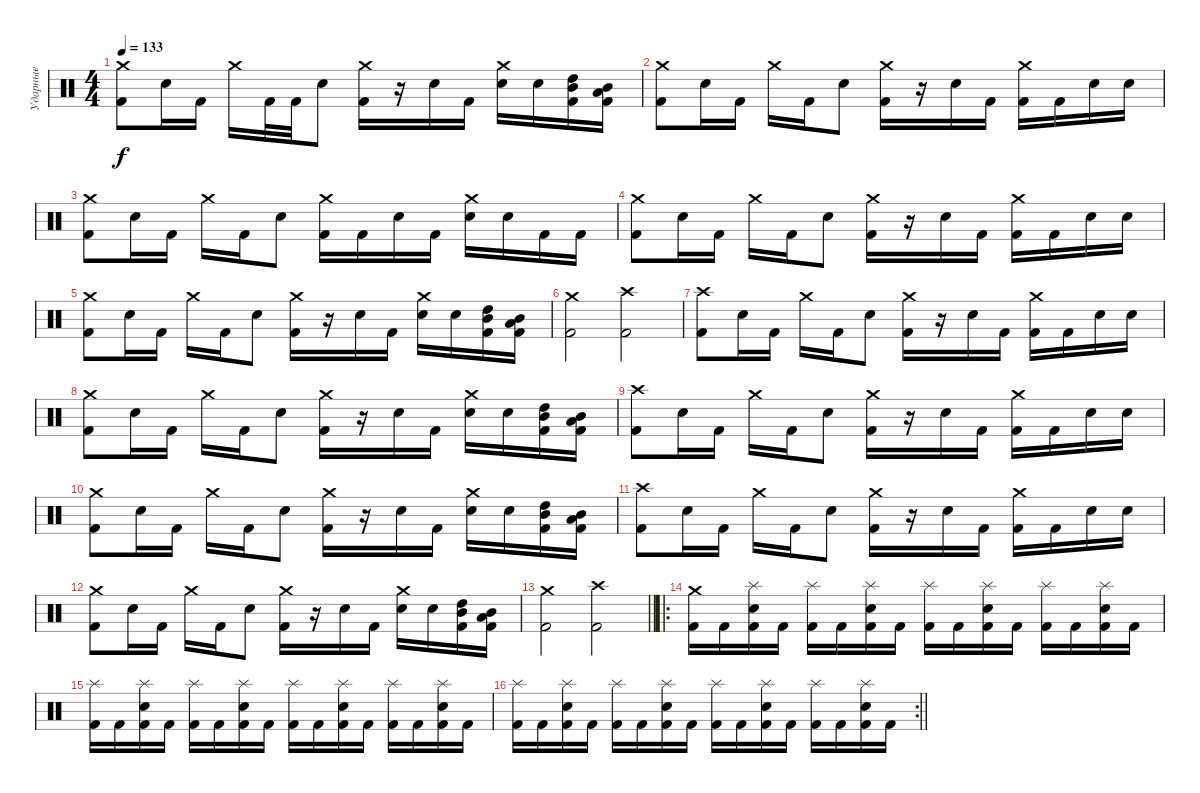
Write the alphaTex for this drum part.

\track ("Ударные" "Ударные") {instrument percussion}
\staff {score}
\articulation defaults
\ts (4 4)
\tempo 133
\clef neutral
\ks c
("Crash medium (hit)" "Kick (hit) 2").8{dy f} "Snare (hit) 2".16 "Kick (hit) 2".16 "Crash medium (hit)".16 "Kick (hit) 2".32 "Kick (hit) 2".32 "Snare (hit) 2".8 ("Crash medium (hit)" "Kick (hit) 2").16 r.16 "Snare (hit) 2".16 "Kick (hit) 2".16 ("Crash medium (hit)" "Snare (hit) 2").16 "Snare (hit) 2".16 ("High Tom (hit)" "Mid Tom (hit)" "Kick (hit) 2").16 ("Mid Tom (hit)" "Low Tom (hit)" "Kick (hit) 2").16 |
("Crash medium (hit)" "Kick (hit) 2").8 "Snare (hit) 2".16 "Kick (hit) 2".16 "Crash medium (hit)".16 "Kick (hit) 2".16 "Snare (hit) 2".8 ("Crash medium (hit)" "Kick (hit) 2").16 r.16 "Snare (hit) 2".16 "Kick (hit) 2".16 ("Crash medium (hit)" "Kick (hit) 2").16 "Kick (hit) 2".16 "Snare (hit) 2".16 "Snare (hit) 2".16 |
("Crash medium (hit)" "Kick (hit) 2").8 "Snare (hit) 2".16 "Kick (hit) 2".16 "Crash medium (hit)".16 "Kick (hit) 2".16 "Snare (hit) 2".8 ("Crash medium (hit)" "Kick (hit) 2").16 "Kick (hit) 2".16 "Snare (hit) 2".16 "Kick (hit) 2".16 ("Crash medium (hit)" "Snare (hit) 2").16 "Snare (hit) 2".16 "Kick (hit) 2".16 "Kick (hit) 2".16 |
("Crash medium (hit)" "Kick (hit) 2").8 "Snare (hit) 2".16 "Kick (hit) 2".16 "Crash medium (hit)".16 "Kick (hit) 2".16 "Snare (hit) 2".8 ("Crash medium (hit)" "Kick (hit) 2").16 r.16 "Snare (hit) 2".16 "Kick (hit) 2".16 ("Crash medium (hit)" "Kick (hit) 2").16 "Kick (hit) 2".16 "Snare (hit) 2".16 "Snare (hit) 2".16 |
("Crash medium (hit)" "Kick (hit) 2").8 "Snare (hit) 2".16 "Kick (hit) 2".16 "Crash medium (hit)".16 "Kick (hit) 2".16 "Snare (hit) 2".8 ("Crash medium (hit)" "Kick (hit) 2").16 r.16 "Snare (hit) 2".16 "Kick (hit) 2".16 ("Crash medium (hit)" "Snare (hit) 2").16 "Snare (hit) 2".16 ("High Tom (hit)" "Mid Tom (hit)" "Kick (hit) 2").16 ("Mid Tom (hit)" "Low Tom (hit)" "Kick (hit) 2").16 |
("Crash medium (hit)" "Kick (hit) 2").2 ("Crash high (hit)" "Kick (hit) 2").2 |
("Crash high (hit)" "Kick (hit) 2").8 "Snare (hit) 2".16 "Kick (hit) 2".16 "Crash medium (hit)".16 "Kick (hit) 2".16 "Snare (hit) 2".8 ("Crash medium (hit)" "Kick (hit) 2").16 r.16 "Snare (hit) 2".16 "Kick (hit) 2".16 ("Crash medium (hit)" "Kick (hit) 2").16 "Kick (hit) 2".16 "Snare (hit) 2".16 "Snare (hit) 2".16 |
("Crash medium (hit)" "Kick (hit) 2").8 "Snare (hit) 2".16 "Kick (hit) 2".16 "Crash medium (hit)".16 "Kick (hit) 2".16 "Snare (hit) 2".8 ("Crash medium (hit)" "Kick (hit) 2").16 r.16 "Snare (hit) 2".16 "Kick (hit) 2".16 ("Crash medium (hit)" "Snare (hit) 2").16 "Snare (hit) 2".16 ("High Tom (hit)" "Mid Tom (hit)" "Kick (hit) 2").16 ("Mid Tom (hit)" "Low Tom (hit)" "Kick (hit) 2").16 |
("Crash high (hit)" "Kick (hit) 2").8 "Snare (hit) 2".16 "Kick (hit) 2".16 "Crash medium (hit)".16 "Kick (hit) 2".16 "Snare (hit) 2".8 ("Crash medium (hit)" "Kick (hit) 2").16 r.16 "Snare (hit) 2".16 "Kick (hit) 2".16 ("Crash medium (hit)" "Kick (hit) 2").16 "Kick (hit) 2".16 "Snare (hit) 2".16 "Snare (hit) 2".16 |
("Crash medium (hit)" "Kick (hit) 2").8 "Snare (hit) 2".16 "Kick (hit) 2".16 "Crash medium (hit)".16 "Kick (hit) 2".16 "Snare (hit) 2".8 ("Crash medium (hit)" "Kick (hit) 2").16 r.16 "Snare (hit) 2".16 "Kick (hit) 2".16 ("Crash medium (hit)" "Snare (hit) 2").16 "Snare (hit) 2".16 ("High Tom (hit)" "Mid Tom (hit)" "Kick (hit) 2").16 ("Mid Tom (hit)" "Low Tom (hit)" "Kick (hit) 2").16 |
("Crash high (hit)" "Kick (hit) 2").8 "Snare (hit) 2".16 "Kick (hit) 2".16 "Crash medium (hit)".16 "Kick (hit) 2".16 "Snare (hit) 2".8 ("Crash medium (hit)" "Kick (hit) 2").16 r.16 "Snare (hit) 2".16 "Kick (hit) 2".16 ("Crash medium (hit)" "Kick (hit) 2").16 "Kick (hit) 2".16 "Snare (hit) 2".16 "Snare (hit) 2".16 |
("Crash medium (hit)" "Kick (hit) 2").8 "Snare (hit) 2".16 "Kick (hit) 2".16 "Crash medium (hit)".16 "Kick (hit) 2".16 "Snare (hit) 2".8 ("Crash medium (hit)" "Kick (hit) 2").16 r.16 "Snare (hit) 2".16 "Kick (hit) 2".16 ("Crash medium (hit)" "Snare (hit) 2").16 "Snare (hit) 2".16 ("High Tom (hit)" "Mid Tom (hit)" "Kick (hit) 2").16 ("Mid Tom (hit)" "Low Tom (hit)" "Kick (hit) 2").16 |
\barLineRight lightlight
("Crash medium (hit)" "Kick (hit) 2").2 ("Crash high (hit)" "Kick (hit) 2").2 |
\ro
("Crash medium (hit)" "Kick (hit) 2").16 "Kick (hit) 2".16 ("Splash (hit)" "Snare (hit) 2" "Kick (hit) 2").16 "Kick (hit) 2".16 ("Splash (hit)" "Kick (hit) 2").16 "Kick (hit) 2".16 ("Splash (hit)" "Snare (hit) 2" "Kick (hit) 2").16 "Kick (hit) 2".16 ("Splash (hit)" "Kick (hit) 2").16 "Kick (hit) 2".16 ("Splash (hit)" "Snare (hit) 2" "Kick (hit) 2").16 "Kick (hit) 2".16 ("Splash (hit)" "Kick (hit) 2").16 "Kick (hit) 2".16 ("Splash (hit)" "Snare (hit) 2" "Kick (hit) 2").16 "Kick (hit) 2".16 |
("Splash (hit)" "Kick (hit) 2").16 "Kick (hit) 2".16 ("Splash (hit)" "Snare (hit) 2" "Kick (hit) 2").16 "Kick (hit) 2".16 ("Splash (hit)" "Kick (hit) 2").16 "Kick (hit) 2".16 ("Splash (hit)" "Snare (hit) 2" "Kick (hit) 2").16 "Kick (hit) 2".16 ("Splash (hit)" "Kick (hit) 2").16 "Kick (hit) 2".16 ("Splash (hit)" "Snare (hit) 2" "Kick (hit) 2").16 "Kick (hit) 2".16 ("Splash (hit)" "Kick (hit) 2").16 "Kick (hit) 2".16 ("Splash (hit)" "Snare (hit) 2" "Kick (hit) 2").16 "Kick (hit) 2".16 |
\rc 2
\barLineRight lightlight
("Splash (hit)" "Kick (hit) 2").16 "Kick (hit) 2".16 ("Splash (hit)" "Snare (hit) 2" "Kick (hit) 2").16 "Kick (hit) 2".16 ("Splash (hit)" "Kick (hit) 2").16 "Kick (hit) 2".16 ("Splash (hit)" "Snare (hit) 2" "Kick (hit) 2").16 "Kick (hit) 2".16 ("Splash (hit)" "Kick (hit) 2").16 "Kick (hit) 2".16 ("Splash (hit)" "Snare (hit) 2" "Kick (hit) 2").16 "Kick (hit) 2".16 ("Splash (hit)" "Kick (hit) 2").16 "Kick (hit) 2".16 ("Splash (hit)" "Snare (hit) 2" "Kick (hit) 2").16 "Kick (hit) 2".16
